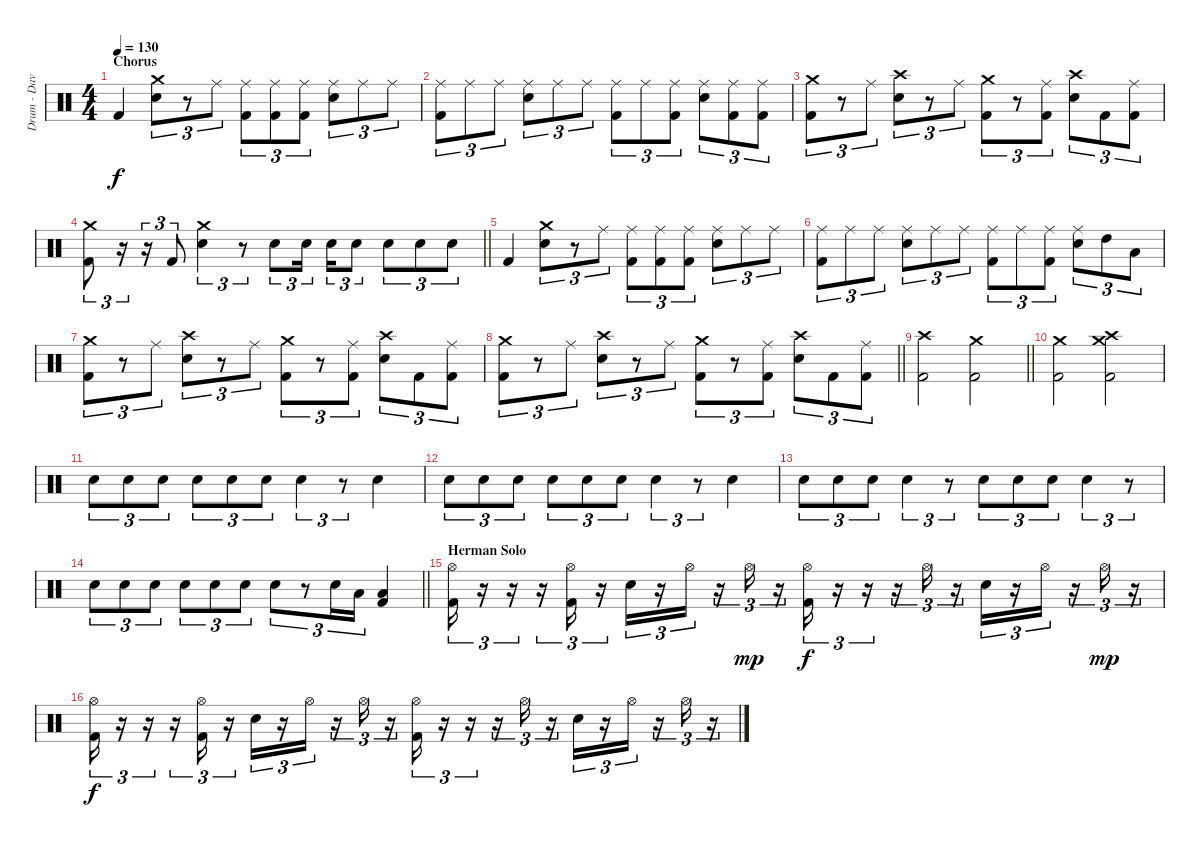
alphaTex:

\track ("Drum - Dave Mackintosh" "Drum - Dav") {instrument percussion}
\staff {score}
\articulation defaults
\ts (4 4)
\section ("" "Chorus")
\tempo 130
\clef neutral
\ks c "Kick (hit) 2".4{dy f}
("Crash medium (hit)" "Electric Snare (hit)").8{tu (3 2)} r.8{tu (3 2)} "Ride (middle)".8{tu (3 2)} ("Ride (middle)" "Kick (hit) 2").8{tu (3 2)} ("Ride (middle)" "Kick (hit) 2").8{tu (3 2)} ("Ride (middle)" "Kick (hit) 2").8{tu (3 2)} ("Ride (middle)" "Electric Snare (hit)").8{tu (3 2)} "Ride (middle)".8{tu (3 2)} "Ride (middle)".8{tu (3 2)} |
("Ride (middle)" "Kick (hit) 2").8{tu (3 2)} "Ride (middle)".8{tu (3 2)} "Ride (middle)".8{tu (3 2)} ("Ride (middle)" "Electric Snare (hit)").8{tu (3 2)} "Ride (middle)".8{tu (3 2)} "Ride (middle)".8{tu (3 2)} ("Ride (middle)" "Kick (hit) 2").8{tu (3 2)} "Ride (middle)".8{tu (3 2)} ("Ride (middle)" "Kick (hit) 2").8{tu (3 2)} ("Ride (middle)" "Electric Snare (hit)").8{tu (3 2)} ("Ride (middle)" "Kick (hit) 2").8{tu (3 2)} ("Ride (middle)" "Kick (hit) 2").8{tu (3 2)} |
("Crash medium (hit)" "Kick (hit) 2").8{tu (3 2)} r.8{tu (3 2)} "Ride (middle)".8{tu (3 2)} ("Crash high (hit)" "Electric Snare (hit)").8{tu (3 2)} r.8{tu (3 2)} "Ride (middle)".8{tu (3 2)} ("Crash medium (hit)" "Kick (hit) 2").8{tu (3 2)} r.8{tu (3 2)} ("Ride (middle)" "Kick (hit) 2").8{tu (3 2)} ("Crash high (hit)" "Electric Snare (hit)").8{tu (3 2)} "Kick (hit) 2".8{tu (3 2)} ("Ride (middle)" "Kick (hit) 2").8{tu (3 2)} |
\barLineRight lightlight
("Crash medium (hit)" "Kick (hit) 2").8{tu (3 2)} r.16{tu (3 2)} r.16{tu (3 2)} "Kick (hit) 2".8{tu (3 2)} ("Crash medium (hit)" "Electric Snare (hit)").4{tu (3 2)} r.8{tu (3 2)} "Electric Snare (hit)".8{tu (3 2)} "Electric Snare (hit)".16{tu (3 2) beam splitsecondary} "Electric Snare (hit)".16{tu (3 2)} "Electric Snare (hit)".8{tu (3 2)} "Electric Snare (hit)".8{tu (3 2)} "Electric Snare (hit)".8{tu (3 2)} "Electric Snare (hit)".8{tu (3 2)} |
"Kick (hit) 2".4 ("Crash medium (hit)" "Electric Snare (hit)").8{tu (3 2)} r.8{tu (3 2)} "Ride (middle)".8{tu (3 2)} ("Ride (middle)" "Kick (hit) 2").8{tu (3 2)} ("Ride (middle)" "Kick (hit) 2").8{tu (3 2)} ("Ride (middle)" "Kick (hit) 2").8{tu (3 2)} ("Ride (middle)" "Electric Snare (hit)").8{tu (3 2)} "Ride (middle)".8{tu (3 2)} "Ride (middle)".8{tu (3 2)} |
("Ride (middle)" "Kick (hit) 2").8{tu (3 2)} "Ride (middle)".8{tu (3 2)} "Ride (middle)".8{tu (3 2)} ("Ride (middle)" "Electric Snare (hit)").8{tu (3 2)} "Ride (middle)".8{tu (3 2)} "Ride (middle)".8{tu (3 2)} ("Ride (middle)" "Kick (hit) 2").8{tu (3 2)} "Ride (middle)".8{tu (3 2)} ("Ride (middle)" "Kick (hit) 2").8{tu (3 2)} ("Ride (middle)" "Electric Snare (hit)").8{tu (3 2)} "High Tom (hit)".8{tu (3 2)} "Low Tom (hit)".8{tu (3 2)} |
("Crash medium (hit)" "Kick (hit) 2").8{tu (3 2)} r.8{tu (3 2)} "Ride (middle)".8{tu (3 2)} ("Crash high (hit)" "Electric Snare (hit)").8{tu (3 2)} r.8{tu (3 2)} "Ride (middle)".8{tu (3 2)} ("Crash medium (hit)" "Kick (hit) 2").8{tu (3 2)} r.8{tu (3 2)} ("Ride (middle)" "Kick (hit) 2").8{tu (3 2)} ("Crash high (hit)" "Electric Snare (hit)").8{tu (3 2)} "Kick (hit) 2".8{tu (3 2)} ("Ride (middle)" "Kick (hit) 2").8{tu (3 2)} |
\barLineRight lightlight
("Crash medium (hit)" "Kick (hit) 2").8{tu (3 2)} r.8{tu (3 2)} "Ride (middle)".8{tu (3 2)} ("Crash high (hit)" "Electric Snare (hit)").8{tu (3 2)} r.8{tu (3 2)} "Ride (middle)".8{tu (3 2)} ("Crash medium (hit)" "Kick (hit) 2").8{tu (3 2)} r.8{tu (3 2)} ("Ride (middle)" "Kick (hit) 2").8{tu (3 2)} ("Crash high (hit)" "Electric Snare (hit)").8{tu (3 2)} "Kick (hit) 2".8{tu (3 2)} ("Ride (middle)" "Kick (hit) 2").8{tu (3 2)} |
\section ("" "")
\barLineRight lightlight
("Crash high (hit)" "Kick (hit) 2").2 ("Crash medium (hit)" "Kick (hit) 2").2 |
("Crash medium (hit)" "Kick (hit) 2").2 ("Crash medium (hit)" "Crash high (hit)" "Kick (hit) 2").2 |
"Electric Snare (hit)".8{tu (3 2)} "Electric Snare (hit)".8{tu (3 2)} "Electric Snare (hit)".8{tu (3 2)} "Electric Snare (hit)".8{tu (3 2)} "Electric Snare (hit)".8{tu (3 2)} "Electric Snare (hit)".8{tu (3 2)} "Electric Snare (hit)".4{tu (3 2)} r.8{tu (3 2)} "Electric Snare (hit)".4 |
"Electric Snare (hit)".8{tu (3 2)} "Electric Snare (hit)".8{tu (3 2)} "Electric Snare (hit)".8{tu (3 2)} "Electric Snare (hit)".8{tu (3 2)} "Electric Snare (hit)".8{tu (3 2)} "Electric Snare (hit)".8{tu (3 2)} "Electric Snare (hit)".4{tu (3 2)} r.8{tu (3 2)} "Electric Snare (hit)".4 |
"Electric Snare (hit)".8{tu (3 2)} "Electric Snare (hit)".8{tu (3 2)} "Electric Snare (hit)".8{tu (3 2)} "Electric Snare (hit)".4{tu (3 2)} r.8{tu (3 2)} "Electric Snare (hit)".8{tu (3 2)} "Electric Snare (hit)".8{tu (3 2)} "Electric Snare (hit)".8{tu (3 2)} "Electric Snare (hit)".4{tu (3 2)} r.8{tu (3 2)} |
\barLineRight lightlight "Electric Snare (hit)".8{tu (3 2)} "Electric Snare (hit)".8{tu (3 2)} "Electric Snare (hit)".8{tu (3 2)} "Electric Snare (hit)".8{tu (3 2)} "Electric Snare (hit)".8{tu (3 2)} "Electric Snare (hit)".8{tu (3 2)} "Electric Snare (hit)".8{tu (3 2)}
r.8{tu (3 2)} "Electric Snare (hit)".16{tu (3 2)} "Low Tom (hit)".16{tu (3 2)} ("Low Floor Tom (hit)" "Kick (hit) 2").4 |
\section ("" "Herman Solo")
("Hi-Hat (open)" "Kick (hit) 2").16{tu (3 2)} r.16{tu (3 2)} r.16{tu (3 2)} r.16{tu (3 2)} ("Hi-Hat (open)" "Kick (hit) 2").16{tu (3 2)} r.16{tu (3 2)} "Electric Snare (hit)".16{tu (3 2)} r.16{tu (3 2)} "Hi-Hat (open)".16{tu (3 2)} r.16{tu (3 2)} "Hi-Hat (open)".16{tu (3 2) dy mp} r.16{tu (3 2)} ("Hi-Hat (open)" "Kick (hit) 2").16{tu (3 2) dy f} r.16{tu (3 2)} r.16{tu (3 2)} r.16{tu (3 2)} "Hi-Hat (open)".16{tu (3 2)} r.16{tu (3 2)} "Electric Snare (hit)".16{tu (3 2)} r.16{tu (3 2)} "Hi-Hat (open)".16{tu (3 2)} r.16{tu (3 2)} "Hi-Hat (open)".16{tu (3 2) dy mp} r.16{tu (3 2)} |
("Hi-Hat (open)" "Kick (hit) 2").16{tu (3 2) dy f} r.16{tu (3 2)} r.16{tu (3 2)} r.16{tu (3 2)} ("Hi-Hat (open)" "Kick (hit) 2").16{tu (3 2)} r.16{tu (3 2)} "Electric Snare (hit)".16{tu (3 2)} r.16{tu (3 2)} "Hi-Hat (open)".16{tu (3 2)} r.16{tu (3 2)} "Hi-Hat (open)".16{tu (3 2)} r.16{tu (3 2)} ("Hi-Hat (open)" "Kick (hit) 2").16{tu (3 2)} r.16{tu (3 2)} r.16{tu (3 2)} r.16{tu (3 2)} "Hi-Hat (open)".16{tu (3 2)} r.16{tu (3 2)} "Electric Snare (hit)".16{tu (3 2)} r.16{tu (3 2)} "Hi-Hat (open)".16{tu (3 2)} r.16{tu (3 2)} "Hi-Hat (open)".16{tu (3 2)} r.16{tu (3 2)}
